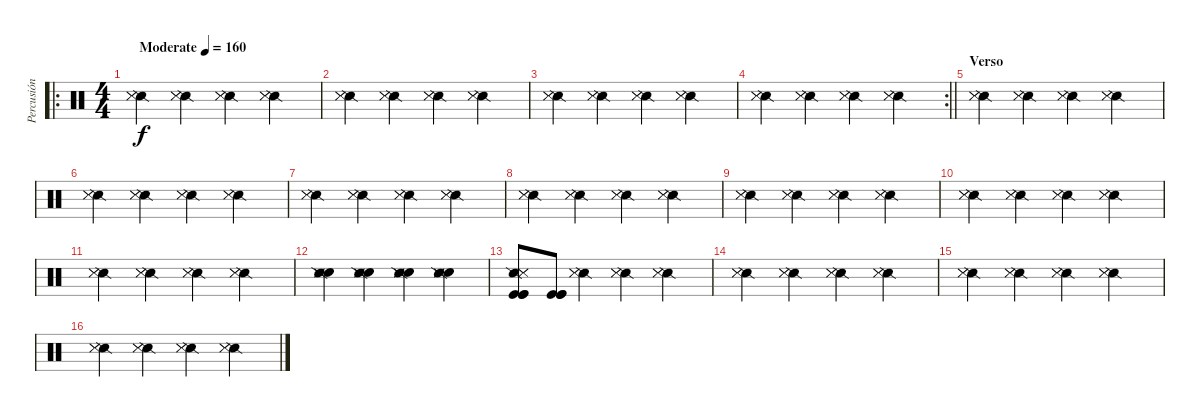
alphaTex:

\track ("Percusión" "Percusión") {instrument percussion}
\staff {score}
\articulation defaults
\ro
\ts (4 4)
\tempo (160 "Moderate")
\clef neutral
\ks c
("Snare (side stick) 2" "Metronome (hit)" "Metronome (hit)").4{dy f} ("Snare (side stick) 2" "Metronome (hit)" "Metronome (hit)").4 ("Snare (side stick) 2" "Metronome (hit)" "Metronome (hit)").4 ("Snare (side stick) 2" "Metronome (hit)" "Metronome (hit)").4 |
("Snare (side stick) 2" "Metronome (hit)" "Metronome (hit)").4 ("Snare (side stick) 2" "Metronome (hit)" "Metronome (hit)").4 ("Snare (side stick) 2" "Metronome (hit)" "Metronome (hit)").4 ("Snare (side stick) 2" "Metronome (hit)" "Metronome (hit)").4 |
("Snare (side stick) 2" "Metronome (hit)" "Metronome (hit)").4 ("Snare (side stick) 2" "Metronome (hit)" "Metronome (hit)").4 ("Snare (side stick) 2" "Metronome (hit)" "Metronome (hit)").4 ("Snare (side stick) 2" "Metronome (hit)" "Metronome (hit)").4 |
\rc 2
\barLineRight lightlight
("Snare (side stick) 2" "Metronome (hit)" "Metronome (hit)").4 ("Snare (side stick) 2" "Metronome (hit)" "Metronome (hit)").4 ("Snare (side stick) 2" "Metronome (hit)" "Metronome (hit)").4 ("Snare (side stick) 2" "Metronome (hit)" "Metronome (hit)").4 |
\section ("" "Verso")
("Snare (side stick) 2" "Metronome (hit)" "Metronome (hit)").4 ("Snare (side stick) 2" "Metronome (hit)" "Metronome (hit)").4 ("Snare (side stick) 2" "Metronome (hit)" "Metronome (hit)").4 ("Snare (side stick) 2" "Metronome (hit)" "Metronome (hit)").4 |
("Snare (side stick) 2" "Metronome (hit)" "Metronome (hit)").4 ("Snare (side stick) 2" "Metronome (hit)" "Metronome (hit)").4 ("Snare (side stick) 2" "Metronome (hit)" "Metronome (hit)").4 ("Snare (side stick) 2" "Metronome (hit)" "Metronome (hit)").4 |
("Snare (side stick) 2" "Metronome (hit)" "Metronome (hit)").4 ("Snare (side stick) 2" "Metronome (hit)" "Metronome (hit)").4 ("Snare (side stick) 2" "Metronome (hit)" "Metronome (hit)").4 ("Snare (side stick) 2" "Metronome (hit)" "Metronome (hit)").4 |
("Snare (side stick) 2" "Metronome (hit)" "Metronome (hit)").4 ("Snare (side stick) 2" "Metronome (hit)" "Metronome (hit)").4 ("Snare (side stick) 2" "Metronome (hit)" "Metronome (hit)").4 ("Snare (side stick) 2" "Metronome (hit)" "Metronome (hit)").4 |
("Snare (side stick) 2" "Metronome (hit)" "Metronome (hit)").4 ("Snare (side stick) 2" "Metronome (hit)" "Metronome (hit)").4 ("Snare (side stick) 2" "Metronome (hit)" "Metronome (hit)").4 ("Snare (side stick) 2" "Metronome (hit)" "Metronome (hit)").4 |
("Snare (side stick) 2" "Metronome (hit)" "Metronome (hit)").4 ("Snare (side stick) 2" "Metronome (hit)" "Metronome (hit)").4 ("Snare (side stick) 2" "Metronome (hit)" "Metronome (hit)").4 ("Snare (side stick) 2" "Metronome (hit)" "Metronome (hit)").4 |
("Snare (side stick) 2" "Metronome (hit)" "Metronome (hit)").4 ("Snare (side stick) 2" "Metronome (hit)" "Metronome (hit)").4 ("Snare (side stick) 2" "Metronome (hit)" "Metronome (hit)").4 ("Snare (side stick) 2" "Metronome (hit)" "Metronome (hit)").4 |
("Snare (hit)" "Snare (side stick) 2" "Metronome (hit)" "Metronome (hit)").4 ("Snare (hit)" "Snare (side stick) 2" "Metronome (hit)" "Metronome (hit)").4 ("Snare (hit)" "Snare (side stick) 2" "Metronome (hit)" "Metronome (hit)").4 ("Snare (hit)" "Snare (side stick) 2" "Metronome (hit)" "Metronome (hit)").4 |
("Kick (hit)" "Kick (hit)" "Snare (side stick) 2" "Metronome (hit)" "Metronome (hit)" "Kick (hit)").8 ("Kick (hit)" "Kick (hit)" "Kick (hit)").8 ("Snare (side stick) 2" "Metronome (hit)" "Metronome (hit)").4 ("Snare (side stick) 2" "Metronome (hit)" "Metronome (hit)").4 ("Snare (side stick) 2" "Metronome (hit)" "Metronome (hit)").4 |
("Snare (side stick) 2" "Metronome (hit)" "Metronome (hit)").4 ("Snare (side stick) 2" "Metronome (hit)" "Metronome (hit)").4 ("Snare (side stick) 2" "Metronome (hit)" "Metronome (hit)").4 ("Snare (side stick) 2" "Metronome (hit)" "Metronome (hit)").4 |
("Snare (side stick) 2" "Metronome (hit)" "Metronome (hit)").4 ("Snare (side stick) 2" "Metronome (hit)" "Metronome (hit)").4 ("Snare (side stick) 2" "Metronome (hit)" "Metronome (hit)").4 ("Snare (side stick) 2" "Metronome (hit)" "Metronome (hit)").4 |
("Snare (side stick) 2" "Metronome (hit)" "Metronome (hit)").4 ("Snare (side stick) 2" "Metronome (hit)" "Metronome (hit)").4 ("Snare (side stick) 2" "Metronome (hit)" "Metronome (hit)").4 ("Snare (side stick) 2" "Metronome (hit)" "Metronome (hit)").4
